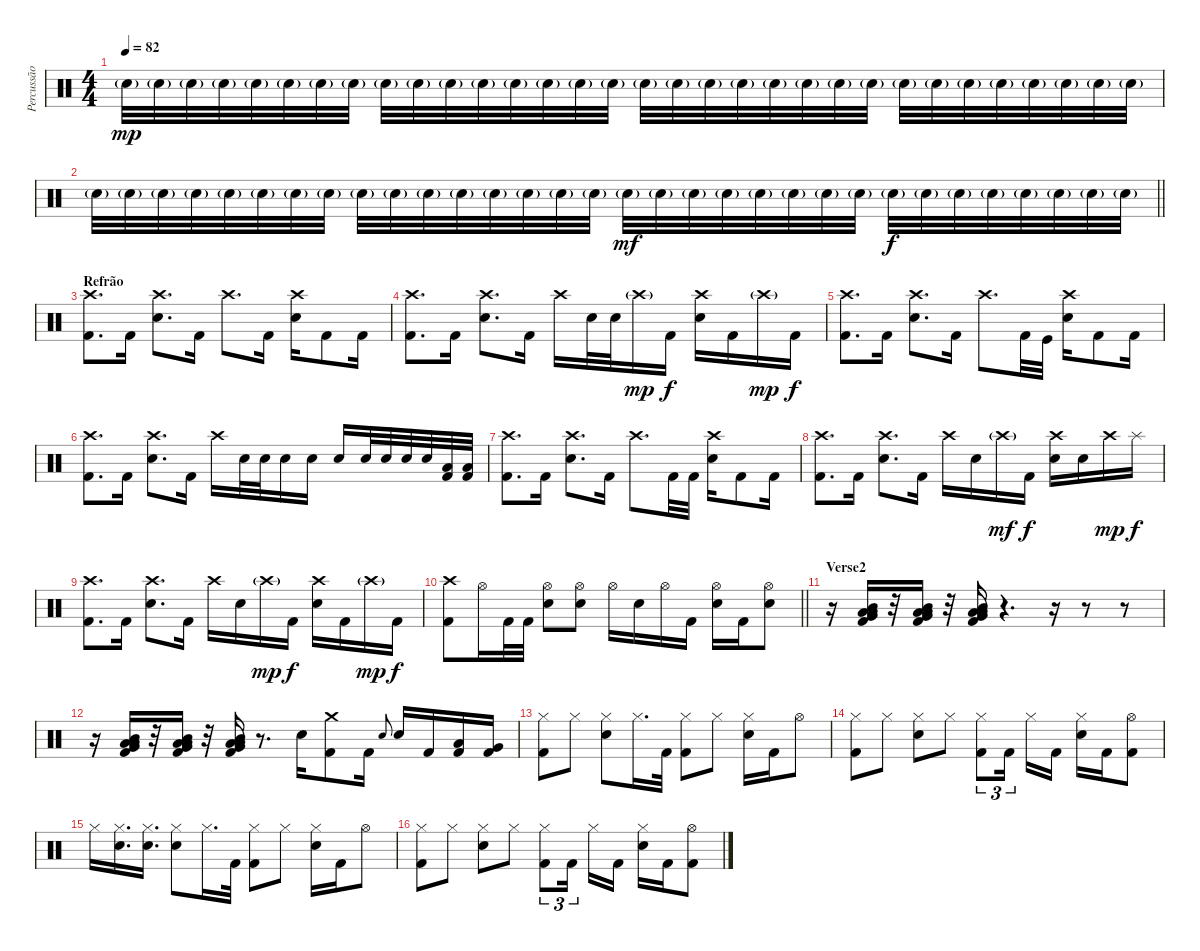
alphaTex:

\track ("Percussão" "Percussão") {instrument percussion}
\staff {score}
\articulation defaults
\ts (4 4)
\tempo 82
\clef neutral
\ks c "Electric Snare (hit)"{g}.32{dy mp} "Electric Snare (hit)"{g}.32 "Electric Snare (hit)"{g}.32 "Electric Snare (hit)"{g}.32 "Electric Snare (hit)"{g}.32 "Electric Snare (hit)"{g}.32 "Electric Snare (hit)"{g}.32 "Electric Snare (hit)"{g}.32 "Electric Snare (hit)"{g}.32 "Electric Snare (hit)"{g}.32 "Electric Snare (hit)"{g}.32 "Electric Snare (hit)"{g}.32 "Electric Snare (hit)"{g}.32 "Electric Snare (hit)"{g}.32 "Electric Snare (hit)"{g}.32 "Electric Snare (hit)"{g}.32 "Electric Snare (hit)"{g}.32 "Electric Snare (hit)"{g}.32 "Electric Snare (hit)"{g}.32 "Electric Snare (hit)"{g}.32 "Electric Snare (hit)"{g}.32 "Electric Snare (hit)"{g}.32 "Electric Snare (hit)"{g}.32 "Electric Snare (hit)"{g}.32 "Electric Snare (hit)"{g}.32 "Electric Snare (hit)"{g}.32 "Electric Snare (hit)"{g}.32 "Electric Snare (hit)"{g}.32 "Electric Snare (hit)"{g}.32 "Electric Snare (hit)"{g}.32 "Electric Snare (hit)"{g}.32 "Electric Snare (hit)"{g}.32
|
\barLineRight lightlight "Electric Snare (hit)"{g}.32 "Electric Snare (hit)"{g}.32 "Electric Snare (hit)"{g}.32 "Electric Snare (hit)"{g}.32 "Electric Snare (hit)"{g}.32 "Electric Snare (hit)"{g}.32 "Electric Snare (hit)"{g}.32 "Electric Snare (hit)"{g}.32 "Electric Snare (hit)"{g}.32 "Electric Snare (hit)"{g}.32 "Electric Snare (hit)"{g}.32 "Electric Snare (hit)"{g}.32 "Electric Snare (hit)"{g}.32 "Electric Snare (hit)"{g}.32 "Electric Snare (hit)"{g}.32 "Electric Snare (hit)"{g}.32 "Electric Snare (hit)"{g}.32{dy mf} "Electric Snare (hit)"{g}.32 "Electric Snare (hit)"{g}.32 "Electric Snare (hit)"{g}.32 "Electric Snare (hit)"{g}.32 "Electric Snare (hit)"{g}.32 "Electric Snare (hit)"{g}.32 "Electric Snare (hit)"{g}.32 "Electric Snare (hit)"{g}.32{dy f} "Electric Snare (hit)"{g}.32 "Electric Snare (hit)"{g}.32 "Electric Snare (hit)"{g}.32 "Electric Snare (hit)"{g}.32 "Electric Snare (hit)"{g}.32 "Electric Snare (hit)"{g}.32 "Electric Snare (hit)"{g}.32
|
\section ("" "Refrão")
("Kick (hit) 2" "Crash high (hit)").8{d} "Kick (hit) 2".16 ("Electric Snare (hit)" "Crash high (hit)").8{d} "Kick (hit) 2".16 "Crash high (hit)".8{d} "Kick (hit) 2".16 ("Electric Snare (hit)" "Crash high (hit)").16 "Kick (hit) 2".8 "Kick (hit) 2".16 |
("Kick (hit) 2" "Crash high (hit)").8{d} "Kick (hit) 2".16 ("Electric Snare (hit)" "Crash high (hit)").8{d} "Kick (hit) 2".16 "Crash high (hit)".16 "Electric Snare (hit)".32 "Electric Snare (hit)".32 "Crash high (hit)"{g}.16{dy mp} "Kick (hit) 2".16{dy f} ("Crash high (hit)" "Electric Snare (hit)").16 "Kick (hit) 2".16 "Crash high (hit)"{g}.16{dy mp} "Kick (hit) 2".16{dy f} |
("Kick (hit) 2" "Crash high (hit)").8{d} "Kick (hit) 2".16 ("Electric Snare (hit)" "Crash high (hit)").8{d} "Kick (hit) 2".16 "Crash high (hit)".8{d} "Kick (hit) 2".32 "Kick (hit)".32 ("Electric Snare (hit)" "Crash high (hit)").16 "Kick (hit) 2".8 "Kick (hit) 2".16 |
("Kick (hit) 2" "Crash high (hit)").8{d} "Kick (hit) 2".16 ("Electric Snare (hit)" "Crash high (hit)").8{d} "Kick (hit) 2".16 "Crash high (hit)".16 "Electric Snare (hit)".32 "Electric Snare (hit)".32 "Electric Snare (hit)".16 "Electric Snare (hit)".16 "Electric Snare (hit)".16 "Electric Snare (hit)".32 "Electric Snare (hit)".32 "Electric Snare (hit)".32 "Electric Snare (hit)".32 ("Low Tom (hit)" "Kick (hit) 2").32 ("Low Tom (hit)" "Kick (hit) 2").32 |
("Kick (hit) 2" "Crash high (hit)").8{d} "Kick (hit) 2".16 ("Electric Snare (hit)" "Crash high (hit)").8{d} "Kick (hit) 2".16 "Crash high (hit)".8{d} "Kick (hit) 2".32 "Kick (hit) 2".32 ("Electric Snare (hit)" "Crash high (hit)").16 "Kick (hit) 2".8 "Kick (hit) 2".16 |
("Kick (hit) 2" "Crash high (hit)").8{d} "Kick (hit) 2".16 ("Electric Snare (hit)" "Crash high (hit)").8{d} "Kick (hit) 2".16 "Crash high (hit)".16 "Electric Snare (hit)".16 "Crash high (hit)"{g}.16{dy mf} "Kick (hit) 2".16{dy f} ("Crash high (hit)" "Electric Snare (hit)").16 "Electric Snare (hit)".16 "Crash high (hit)".16{dy mp} "Splash (hit)".16{dy f} |
("Kick (hit) 2" "Crash high (hit)").8{d} "Kick (hit) 2".16 ("Electric Snare (hit)" "Crash high (hit)").8{d} "Kick (hit) 2".16 "Crash high (hit)".16 "Electric Snare (hit)".16 "Crash high (hit)"{g}.16{dy mp} "Kick (hit) 2".16{dy f} ("Crash high (hit)" "Electric Snare (hit)").16 "Kick (hit) 2".16 "Crash high (hit)"{g}.16{dy mp} "Kick (hit) 2".16{dy f} |
\barLineRight lightlight
("Crash high (hit)" "Kick (hit) 2").8 "Hi-Hat (open)".16 "Kick (hit) 2".32 "Kick (hit) 2".32 ("Hi-Hat (open)" "Electric Snare (hit)").8 ("Electric Snare (hit)" "Hi-Hat (open)").8 "Hi-Hat (open)".16 "Electric Snare (hit)".16 "Hi-Hat (open)".16 "Kick (hit) 2".16 ("Hi-Hat (open)" "Electric Snare (hit)").16 "Kick (hit) 2".16 ("Electric Snare (hit)" "Hi-Hat (open)").8 |
\section ("" "Verse2")
r.16 ("Kick (hit) 2" "Low Tom (hit)" "Very Low Tom (hit)" "Low Floor Tom (hit)" "Mid Tom (hit)").16 r.32 ("Kick (hit) 2" "Low Tom (hit)" "Very Low Tom (hit)" "Low Floor Tom (hit)" "Mid Tom (hit)").16 r.32 ("Kick (hit) 2" "Low Tom (hit)" "Very Low Tom (hit)" "Low Floor Tom (hit)" "Mid Tom (hit)").16 r.4{d} r.16 r.8 r.8 |
r.16 ("Kick (hit) 2" "Low Tom (hit)" "Very Low Tom (hit)" "Low Floor Tom (hit)" "Mid Tom (hit)").16 r.32 ("Kick (hit) 2" "Low Tom (hit)" "Very Low Tom (hit)" "Low Floor Tom (hit)" "Mid Tom (hit)").16 r.32 ("Kick (hit) 2" "Low Tom (hit)" "Very Low Tom (hit)" "Low Floor Tom (hit)" "Mid Tom (hit)").16 r.8{d} "Electric Snare (hit)".16 ("Crash medium (hit)" "Kick (hit) 2").8 "Kick (hit) 2".16 "Electric Snare (hit)".8{gr onbeat} "Electric Snare (hit)".16 "Kick (hit) 2".16 ("Kick (hit) 2" "Low Tom (hit)").16 ("Kick (hit) 2" "Very Low Tom (hit)").16 |
("Hi-Hat (closed)" "Kick (hit) 2").8 "Hi-Hat (closed)".8 ("Hi-Hat (closed)" "Electric Snare (hit)").8 "Hi-Hat (closed)".16{d} "Kick (hit) 2".32 ("Kick (hit) 2" "Hi-Hat (closed)").8 "Hi-Hat (closed)".8 ("Hi-Hat (closed)" "Electric Snare (hit)").16 "Kick (hit) 2".16 "Hi-Hat (open)".8 |
("Hi-Hat (closed)" "Kick (hit) 2").8 "Hi-Hat (closed)".8 ("Hi-Hat (closed)" "Electric Snare (hit)").8 "Hi-Hat (closed)".8 ("Hi-Hat (closed)" "Kick (hit) 2").8{tu (3 2)} "Kick (hit) 2".16{tu (3 2) beam splitsecondary} "Hi-Hat (closed)".16 "Kick (hit) 2".16 ("Electric Snare (hit)" "Hi-Hat (closed)").16 "Kick (hit) 2".16 ("Kick (hit) 2" "Hi-Hat (open)").8 |
"Hi-Hat (closed)".16 ("Electric Snare (hit)" "Hi-Hat (closed)").16{d} ("Electric Snare (hit)" "Hi-Hat (closed)").16{d} ("Electric Snare (hit)" "Hi-Hat (closed)").8 "Hi-Hat (closed)".16{d} "Kick (hit) 2".32 ("Kick (hit) 2" "Hi-Hat (closed)").8 "Hi-Hat (closed)".8 ("Hi-Hat (closed)" "Electric Snare (hit)").16 "Kick (hit) 2".16 "Hi-Hat (open)".8 |
("Hi-Hat (closed)" "Kick (hit) 2").8 "Hi-Hat (closed)".8 ("Hi-Hat (closed)" "Electric Snare (hit)").8 "Hi-Hat (closed)".8 ("Hi-Hat (closed)" "Kick (hit) 2").8{tu (3 2)} "Kick (hit) 2".16{tu (3 2) beam splitsecondary} "Hi-Hat (closed)".16 "Kick (hit) 2".16 ("Electric Snare (hit)" "Hi-Hat (closed)").16 "Kick (hit) 2".16 ("Kick (hit) 2" "Hi-Hat (open)").8
